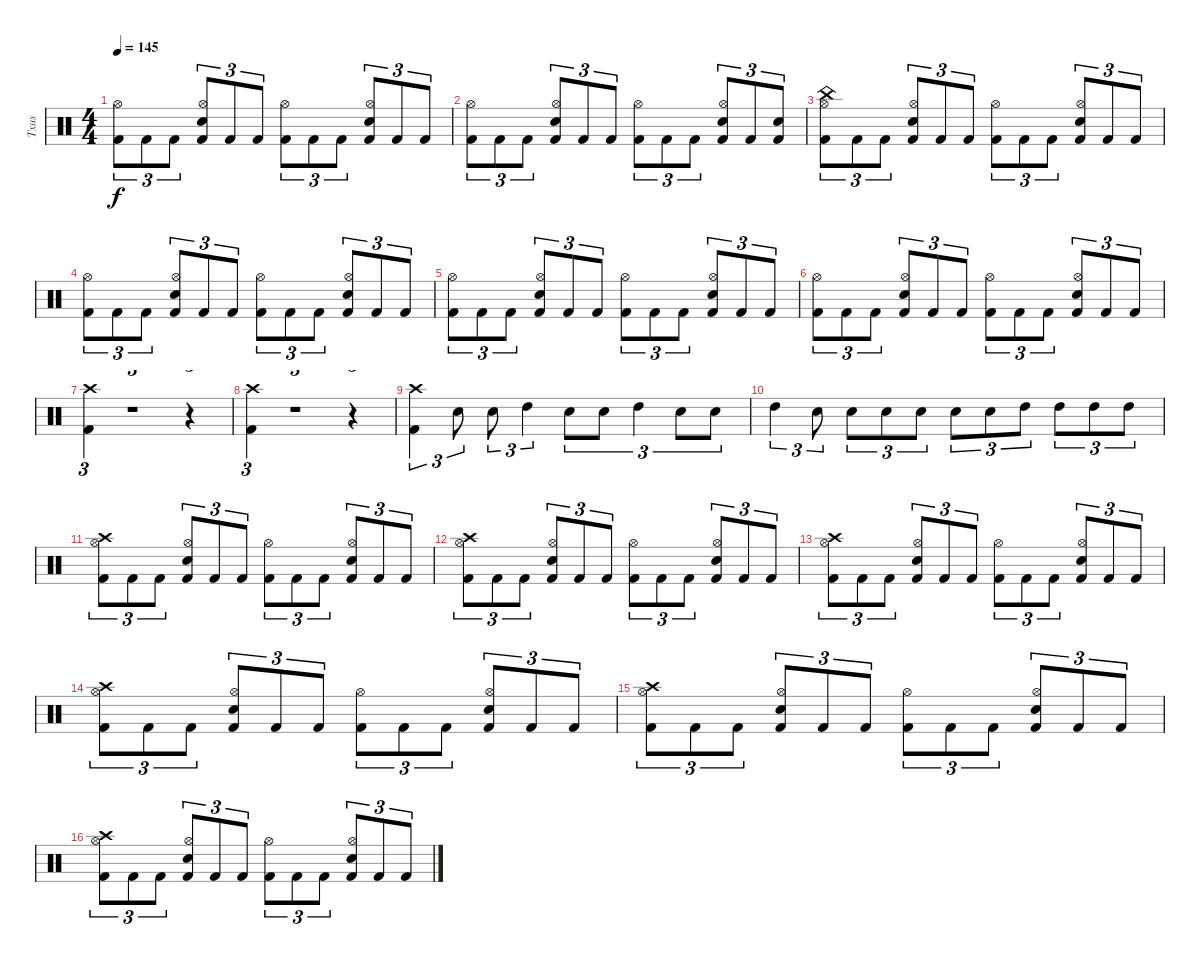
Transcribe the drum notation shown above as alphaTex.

\track ("Txus" "Txus") {instrument percussion}
\staff {score}
\articulation defaults
\ts (4 4)
\tempo 145
\clef neutral
\ks c
("Kick (hit) 2" "Hi-Hat (open)").8{tu (3 2) dy f} "Kick (hit) 2".8{tu (3 2)} "Kick (hit) 2".8{tu (3 2)} ("Kick (hit) 2" "Hi-Hat (open)" "Electric Snare (hit)").8{tu (3 2)} "Kick (hit) 2".8{tu (3 2)} "Kick (hit) 2".8{tu (3 2)} ("Kick (hit) 2" "Hi-Hat (open)").8{tu (3 2)} "Kick (hit) 2".8{tu (3 2)} "Kick (hit) 2".8{tu (3 2)} ("Kick (hit) 2" "Hi-Hat (open)" "Electric Snare (hit)").8{tu (3 2)} "Kick (hit) 2".8{tu (3 2)} "Kick (hit) 2".8{tu (3 2)} |
("Kick (hit) 2" "Hi-Hat (open)").8{tu (3 2)} "Kick (hit) 2".8{tu (3 2)} "Kick (hit) 2".8{tu (3 2)} ("Kick (hit) 2" "Hi-Hat (open)" "Electric Snare (hit)").8{tu (3 2)} "Kick (hit) 2".8{tu (3 2)} "Kick (hit) 2".8{tu (3 2)} ("Kick (hit) 2" "Hi-Hat (open)").8{tu (3 2)} "Kick (hit) 2".8{tu (3 2)} "Kick (hit) 2".8{tu (3 2)} ("Kick (hit) 2" "Hi-Hat (open)" "Electric Snare (hit)").8{tu (3 2)} "Kick (hit) 2".8{tu (3 2)} ("Kick (hit) 2" "Electric Snare (hit)").8{tu (3 2)} |
("Kick (hit) 2" "Hi-Hat (open)" "China (hit)").8{tu (3 2)} "Kick (hit) 2".8{tu (3 2)} "Kick (hit) 2".8{tu (3 2)} ("Kick (hit) 2" "Hi-Hat (open)" "Electric Snare (hit)").8{tu (3 2)} "Kick (hit) 2".8{tu (3 2)} "Kick (hit) 2".8{tu (3 2)} ("Kick (hit) 2" "Hi-Hat (open)").8{tu (3 2)} "Kick (hit) 2".8{tu (3 2)} "Kick (hit) 2".8{tu (3 2)} ("Kick (hit) 2" "Hi-Hat (open)" "Electric Snare (hit)").8{tu (3 2)} "Kick (hit) 2".8{tu (3 2)} "Kick (hit) 2".8{tu (3 2)} |
("Kick (hit) 2" "Hi-Hat (open)").8{tu (3 2)} "Kick (hit) 2".8{tu (3 2)} "Kick (hit) 2".8{tu (3 2)} ("Kick (hit) 2" "Hi-Hat (open)" "Electric Snare (hit)").8{tu (3 2)} "Kick (hit) 2".8{tu (3 2)} "Kick (hit) 2".8{tu (3 2)} ("Kick (hit) 2" "Hi-Hat (open)").8{tu (3 2)} "Kick (hit) 2".8{tu (3 2)} "Kick (hit) 2".8{tu (3 2)} ("Kick (hit) 2" "Hi-Hat (open)" "Electric Snare (hit)").8{tu (3 2)} "Kick (hit) 2".8{tu (3 2)} "Kick (hit) 2".8{tu (3 2)} |
("Kick (hit) 2" "Hi-Hat (open)").8{tu (3 2)} "Kick (hit) 2".8{tu (3 2)} "Kick (hit) 2".8{tu (3 2)} ("Kick (hit) 2" "Hi-Hat (open)" "Electric Snare (hit)").8{tu (3 2)} "Kick (hit) 2".8{tu (3 2)} "Kick (hit) 2".8{tu (3 2)} ("Kick (hit) 2" "Hi-Hat (open)").8{tu (3 2)} "Kick (hit) 2".8{tu (3 2)} "Kick (hit) 2".8{tu (3 2)} ("Kick (hit) 2" "Hi-Hat (open)" "Electric Snare (hit)").8{tu (3 2)} "Kick (hit) 2".8{tu (3 2)} "Kick (hit) 2".8{tu (3 2)} |
("Kick (hit) 2" "Hi-Hat (open)").8{tu (3 2)} "Kick (hit) 2".8{tu (3 2)} "Kick (hit) 2".8{tu (3 2)} ("Kick (hit) 2" "Hi-Hat (open)" "Electric Snare (hit)").8{tu (3 2)} "Kick (hit) 2".8{tu (3 2)} "Kick (hit) 2".8{tu (3 2)} ("Kick (hit) 2" "Hi-Hat (open)").8{tu (3 2)} "Kick (hit) 2".8{tu (3 2)} "Kick (hit) 2".8{tu (3 2)} ("Kick (hit) 2" "Hi-Hat (open)" "Electric Snare (hit)").8{tu (3 2)} "Kick (hit) 2".8{tu (3 2)} "Kick (hit) 2".8{tu (3 2)} |
("Kick (hit) 2" "Crash high (hit)").4{tu (3 2)} r.1{tu (3 2)} r.4{tu (3 2)} |
("Kick (hit) 2" "Crash high (hit)").4{tu (3 2)} r.1{tu (3 2)} r.4{tu (3 2)} |
("Kick (hit) 2" "Crash high (hit)").4{tu (3 2)} "Electric Snare (hit)".8{tu (3 2)} "Electric Snare (hit)".8{tu (3 2)} "High Tom (hit)".4{tu (3 2)} "Electric Snare (hit)".8{tu (3 2)} "Electric Snare (hit)".8{tu (3 2)} "High Tom (hit)".4{tu (3 2)} "Electric Snare (hit)".8{tu (3 2)} "Electric Snare (hit)".8{tu (3 2)} |
"High Tom (hit)".4{tu (3 2)} "Electric Snare (hit)".8{tu (3 2)} "Electric Snare (hit)".8{tu (3 2)} "Electric Snare (hit)".8{tu (3 2)} "Electric Snare (hit)".8{tu (3 2)} "Electric Snare (hit)".8{tu (3 2)} "Electric Snare (hit)".8{tu (3 2)} "High Tom (hit)".8{tu (3 2)} "High Tom (hit)".8{tu (3 2)} "High Tom (hit)".8{tu (3 2)} "High Tom (hit)".8{tu (3 2)} |
("Kick (hit) 2" "Hi-Hat (open)" "Crash high (hit)").8{tu (3 2)} "Kick (hit) 2".8{tu (3 2)} "Kick (hit) 2".8{tu (3 2)} ("Kick (hit) 2" "Hi-Hat (open)" "Electric Snare (hit)").8{tu (3 2)} "Kick (hit) 2".8{tu (3 2)} "Kick (hit) 2".8{tu (3 2)} ("Kick (hit) 2" "Hi-Hat (open)").8{tu (3 2)} "Kick (hit) 2".8{tu (3 2)} "Kick (hit) 2".8{tu (3 2)} ("Kick (hit) 2" "Hi-Hat (open)" "Electric Snare (hit)").8{tu (3 2)} "Kick (hit) 2".8{tu (3 2)} "Kick (hit) 2".8{tu (3 2)} |
("Kick (hit) 2" "Hi-Hat (open)" "Crash high (hit)").8{tu (3 2)} "Kick (hit) 2".8{tu (3 2)} "Kick (hit) 2".8{tu (3 2)} ("Kick (hit) 2" "Hi-Hat (open)" "Electric Snare (hit)").8{tu (3 2)} "Kick (hit) 2".8{tu (3 2)} "Kick (hit) 2".8{tu (3 2)} ("Kick (hit) 2" "Hi-Hat (open)").8{tu (3 2)} "Kick (hit) 2".8{tu (3 2)} "Kick (hit) 2".8{tu (3 2)} ("Kick (hit) 2" "Hi-Hat (open)" "Electric Snare (hit)").8{tu (3 2)} "Kick (hit) 2".8{tu (3 2)} "Kick (hit) 2".8{tu (3 2)} |
("Kick (hit) 2" "Hi-Hat (open)" "Crash high (hit)").8{tu (3 2)} "Kick (hit) 2".8{tu (3 2)} "Kick (hit) 2".8{tu (3 2)} ("Kick (hit) 2" "Hi-Hat (open)" "Electric Snare (hit)").8{tu (3 2)} "Kick (hit) 2".8{tu (3 2)} "Kick (hit) 2".8{tu (3 2)} ("Kick (hit) 2" "Hi-Hat (open)").8{tu (3 2)} "Kick (hit) 2".8{tu (3 2)} "Kick (hit) 2".8{tu (3 2)} ("Kick (hit) 2" "Hi-Hat (open)" "Electric Snare (hit)").8{tu (3 2)} "Kick (hit) 2".8{tu (3 2)} "Kick (hit) 2".8{tu (3 2)} |
("Kick (hit) 2" "Hi-Hat (open)" "Crash high (hit)").8{tu (3 2)} "Kick (hit) 2".8{tu (3 2)} "Kick (hit) 2".8{tu (3 2)} ("Kick (hit) 2" "Hi-Hat (open)" "Electric Snare (hit)").8{tu (3 2)} "Kick (hit) 2".8{tu (3 2)} "Kick (hit) 2".8{tu (3 2)} ("Kick (hit) 2" "Hi-Hat (open)").8{tu (3 2)} "Kick (hit) 2".8{tu (3 2)} "Kick (hit) 2".8{tu (3 2)} ("Kick (hit) 2" "Hi-Hat (open)" "Electric Snare (hit)").8{tu (3 2)} "Kick (hit) 2".8{tu (3 2)} "Kick (hit) 2".8{tu (3 2)} |
("Kick (hit) 2" "Hi-Hat (open)" "Crash high (hit)").8{tu (3 2)} "Kick (hit) 2".8{tu (3 2)} "Kick (hit) 2".8{tu (3 2)} ("Kick (hit) 2" "Hi-Hat (open)" "Electric Snare (hit)").8{tu (3 2)} "Kick (hit) 2".8{tu (3 2)} "Kick (hit) 2".8{tu (3 2)} ("Kick (hit) 2" "Hi-Hat (open)").8{tu (3 2)} "Kick (hit) 2".8{tu (3 2)} "Kick (hit) 2".8{tu (3 2)} ("Kick (hit) 2" "Hi-Hat (open)" "Electric Snare (hit)").8{tu (3 2)} "Kick (hit) 2".8{tu (3 2)} "Kick (hit) 2".8{tu (3 2)} |
("Kick (hit) 2" "Hi-Hat (open)" "Crash high (hit)").8{tu (3 2)} "Kick (hit) 2".8{tu (3 2)} "Kick (hit) 2".8{tu (3 2)} ("Kick (hit) 2" "Hi-Hat (open)" "Electric Snare (hit)").8{tu (3 2)} "Kick (hit) 2".8{tu (3 2)} "Kick (hit) 2".8{tu (3 2)} ("Kick (hit) 2" "Hi-Hat (open)").8{tu (3 2)} "Kick (hit) 2".8{tu (3 2)} "Kick (hit) 2".8{tu (3 2)} ("Kick (hit) 2" "Hi-Hat (open)" "Electric Snare (hit)").8{tu (3 2)} "Kick (hit) 2".8{tu (3 2)} "Kick (hit) 2".8{tu (3 2)}
